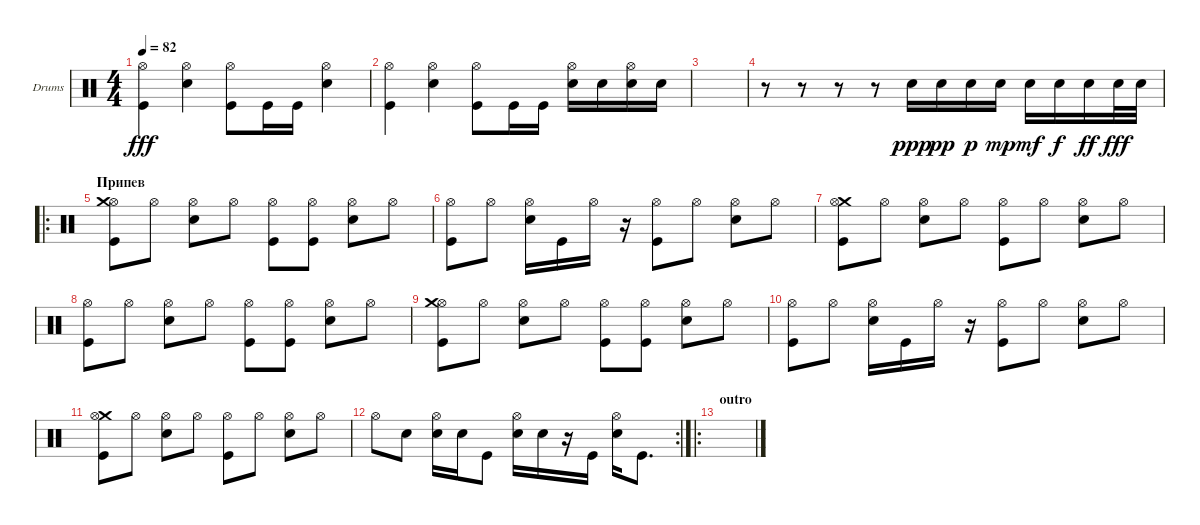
\defaultSystemsLayout 4
\bracketExtendMode groupsimilarinstruments
\firstSystemTrackNameOrientation horizontal
\otherSystemsTrackNameOrientation horizontal
\track ("Drumkit" "Drums") {instrument percussion}
\staff {score}
\articulation defaults
\ts (4 4)
\tempo 82
\clef neutral
\scale
0.333333
\ks c
("Kick (hit)" "Hi-Hat (open)").4{dy fff} ("Snare (hit) 2" "Hi-Hat (open)").4 ("Kick (hit)" "Hi-Hat (open)").8 "Kick (hit)".16 "Kick (hit)".16 ("Hi-Hat (open)" "Snare (hit) 2").4 |
\scale
0.333333 ("Kick (hit)" "Hi-Hat (open)").4 ("Snare (hit) 2" "Hi-Hat (open)").4 ("Kick (hit)" "Hi-Hat (open)").8 "Kick (hit)".16 "Kick (hit)".16 ("Hi-Hat (open)" "Snare (hit) 2").16 "Snare (hit) 2".16 ("Snare (hit) 2" "Hi-Hat (open)").16 "Snare (hit) 2".16 |
\scale
0.311475 |
\scale
0.311475 r.8 r.8 r.8 r.8 "Snare (hit) 2".16{dy ppp} "Snare (hit) 2".16{dy pp} "Snare (hit) 2".16{dy p} "Snare (hit) 2".16{dy mp} "Snare (hit) 2".16{dy mf} "Snare (hit) 2".16{dy f} "Snare (hit) 2".16{dy ff} "Snare (hit) 2".32{dy fff} "Snare (hit) 2".32 |
\ro
\section ("" "Припев")
\scale
0.377049 ("Kick (hit)" "Hi-Hat (open)" "Crash medium (hit)").8 "Hi-Hat (open)".8 ("Snare (hit) 2" "Hi-Hat (open)").8 "Hi-Hat (open)".8 ("Kick (hit)" "Hi-Hat (open)").8 ("Kick (hit)" "Hi-Hat (open)").8 ("Snare (hit) 2" "Hi-Hat (open)").8 "Hi-Hat (open)".8 |
\scale
0.333333 ("Kick (hit)" "Hi-Hat (open)").8 "Hi-Hat (open)".8 ("Snare (hit) 2" "Hi-Hat (open)").16 "Kick (hit)".16 "Hi-Hat (open)".16 r.16 ("Hi-Hat (open)" "Kick (hit)").8 "Hi-Hat (open)".8 ("Hi-Hat (open)" "Snare (hit) 2").8 "Hi-Hat (open)".8 |
\scale
0.333333 ("Kick (hit)" "Crash medium (hit)" "Hi-Hat (open)").8 "Hi-Hat (open)".8 ("Hi-Hat (open)" "Snare (hit) 2").8 "Hi-Hat (open)".8 ("Kick (hit)" "Hi-Hat (open)").8 "Hi-Hat (open)".8 ("Snare (hit) 2" "Hi-Hat (open)").8 "Hi-Hat (open)".8 |
\scale
0.333333 ("Kick (hit)" "Hi-Hat (open)").8 "Hi-Hat (open)".8 ("Snare (hit) 2" "Hi-Hat (open)").8 "Hi-Hat (open)".8 ("Kick (hit)" "Hi-Hat (open)").8 ("Kick (hit)" "Hi-Hat (open)").8 ("Snare (hit) 2" "Hi-Hat (open)").8 "Hi-Hat (open)".8 |
\scale
0.333333 ("Kick (hit)" "Hi-Hat (open)" "Crash medium (hit)").8 "Hi-Hat (open)".8 ("Snare (hit) 2" "Hi-Hat (open)").8 "Hi-Hat (open)".8 ("Kick (hit)" "Hi-Hat (open)").8 ("Kick (hit)" "Hi-Hat (open)").8 ("Snare (hit) 2" "Hi-Hat (open)").8 "Hi-Hat (open)".8 |
\scale
0.333333 ("Kick (hit)" "Hi-Hat (open)").8 "Hi-Hat (open)".8 ("Snare (hit) 2" "Hi-Hat (open)").16 "Kick (hit)".16 "Hi-Hat (open)".16 r.16 ("Hi-Hat (open)" "Kick (hit)").8 "Hi-Hat (open)".8 ("Hi-Hat (open)" "Snare (hit) 2").8 "Hi-Hat (open)".8 |
\scale
0.333333 ("Kick (hit)" "Crash medium (hit)" "Hi-Hat (open)").8 "Hi-Hat (open)".8 ("Snare (hit) 2" "Hi-Hat (open)").8 "Hi-Hat (open)".8 ("Kick (hit)" "Hi-Hat (open)").8 "Hi-Hat (open)".8 ("Snare (hit) 2" "Hi-Hat (open)").8 "Hi-Hat (open)".8 |
\rc 2
\scale
0.333333 "Hi-Hat (open)".8 "Snare (hit) 2".8 ("Snare (hit) 2" "Hi-Hat (open)").16 "Snare (hit) 2".16 "Kick (hit)".8 ("Snare (hit) 2" "Hi-Hat (open)").16 "Snare (hit) 2".16 r.16 "Kick (hit)".16 ("Snare (hit) 2" "Hi-Hat (open)").16 "Kick (hit)".8{d} |
\ro
\section ("" "outro")
\scale
0.365079 |
\scale
0.301587 |
\scale
0.311475 |
\scale
0.311475
